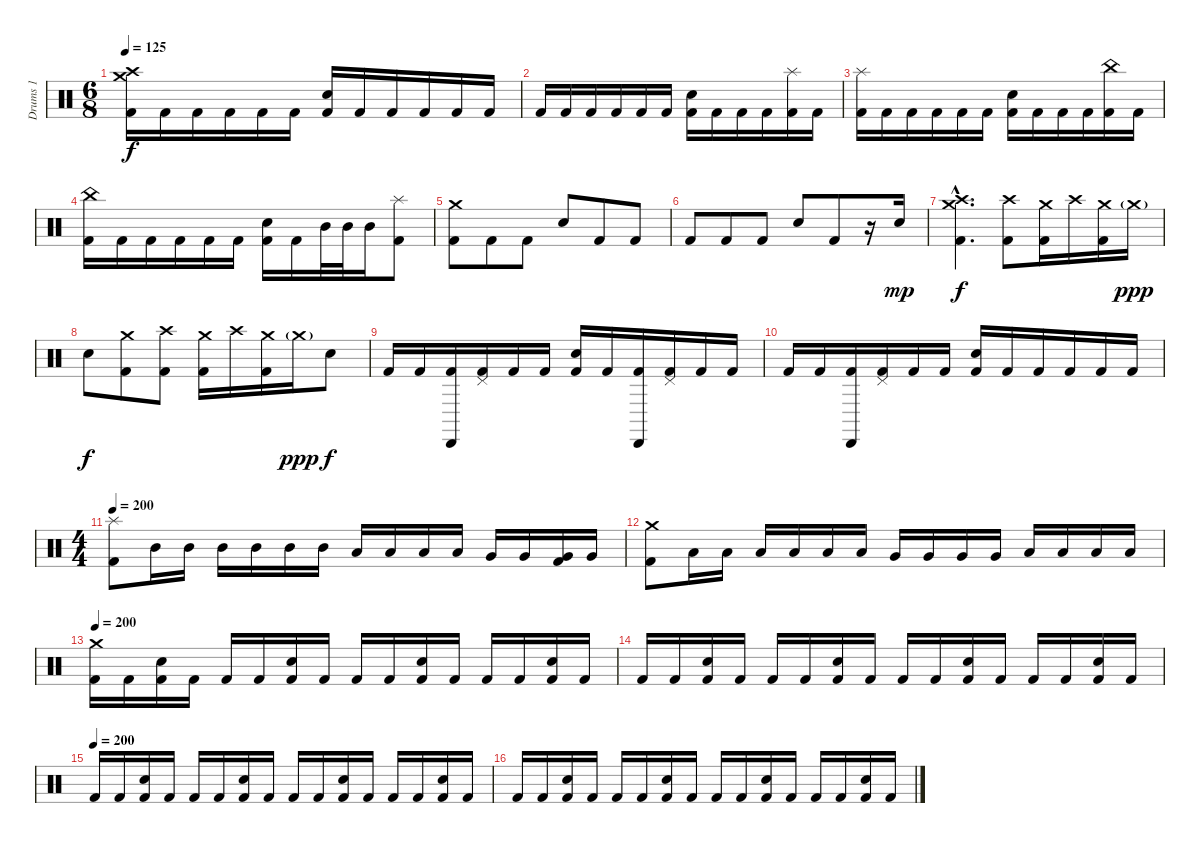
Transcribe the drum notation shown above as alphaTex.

\track ("Drums 1" "Drums 1") {instrument percussion}
\staff {score}
\articulation defaults
\ts (6 8)
\tempo 125
\clef neutral
\ks c
("Crash high (hit)" "Crash medium (hit)" "Kick (hit) 2").16{dy f} "Kick (hit) 2".16 "Kick (hit) 2".16 "Kick (hit) 2".16 "Kick (hit) 2".16 "Kick (hit) 2".16 ("Snare (hit) 2" "Kick (hit) 2").16 "Kick (hit) 2".16 "Kick (hit) 2".16 "Kick (hit) 2".16 "Kick (hit) 2".16 "Kick (hit) 2".16 |
"Kick (hit) 2".16 "Kick (hit) 2".16 "Kick (hit) 2".16 "Kick (hit) 2".16 "Kick (hit) 2".16 "Kick (hit) 2".16 ("Snare (hit) 2" "Kick (hit) 2").16 "Kick (hit) 2".16 "Kick (hit) 2".16 "Kick (hit) 2".16 ("Splash (hit)" "Kick (hit) 2").16 "Kick (hit) 2".16 |
("Splash (hit)" "Kick (hit) 2").16 "Kick (hit) 2".16 "Kick (hit) 2".16 "Kick (hit) 2".16 "Kick (hit) 2".16 "Kick (hit) 2".16 ("Snare (hit) 2" "Kick (hit) 2").16 "Kick (hit) 2".16 "Kick (hit) 2".16 "Kick (hit) 2".16 ("China (hit)" "Kick (hit) 2").16 "Kick (hit) 2".16 |
("China (hit)" "Kick (hit) 2").16 "Kick (hit) 2".16 "Kick (hit) 2".16 "Kick (hit) 2".16 "Kick (hit) 2".16 "Kick (hit) 2".16 ("Snare (hit) 2" "Kick (hit) 2").16 "Kick (hit) 2".16 "Mid Tom (hit)".32 "Mid Tom (hit)".32 "Mid Tom (hit)".16 ("Splash (hit)" "Kick (hit) 2").8 |
("Crash medium (hit)" "Kick (hit) 2").8 "Kick (hit) 2".8 "Kick (hit) 2".8 "Snare (hit) 2".8 "Kick (hit) 2".8 "Kick (hit) 2".8 |
"Kick (hit) 2".8 "Kick (hit) 2".8 "Kick (hit) 2".8 "Snare (hit) 2".8 "Kick (hit) 2".8 r.16 "Snare (hit) 2".16{dy mp} |
("Crash medium (hit)"{hac} "Crash high (hit)"{hac} "Kick (hit) 2"{hac}).4{d dy f} ("Crash high (hit)" "Kick (hit) 2").8 ("Crash medium (hit)" "Kick (hit) 2").16 "Crash high (hit)".16 ("Crash medium (hit)" "Kick (hit) 2").16 "Crash medium (hit)"{g}.16{dy ppp} |
"Snare (hit) 2".8{dy f} ("Crash medium (hit)" "Kick (hit) 2").8 ("Crash high (hit)" "Kick (hit) 2").8 ("Crash medium (hit)" "Kick (hit) 2").16 "Crash high (hit)".16 ("Crash medium (hit)" "Kick (hit) 2").16 "Crash medium (hit)"{g}.16{dy ppp} "Snare (hit) 2".8{dy f} |
"Kick (hit) 2".16 "Kick (hit) 2".16 ("Cabasa (hit)" "Kick (hit) 2").16 ("Pedal Hi-Hat (hit)" "Kick (hit) 2").16 "Kick (hit) 2".16 "Kick (hit) 2".16 ("Snare (hit) 2" "Kick (hit) 2").16 "Kick (hit) 2".16 ("Cabasa (hit)" "Kick (hit) 2").16 ("Pedal Hi-Hat (hit)" "Kick (hit) 2").16 "Kick (hit) 2".16 "Kick (hit) 2".16 |
"Kick (hit) 2".16 "Kick (hit) 2".16 ("Cabasa (hit)" "Kick (hit) 2").16 ("Pedal Hi-Hat (hit)" "Kick (hit) 2").16 "Kick (hit) 2".16 "Kick (hit) 2".16 ("Snare (hit) 2" "Kick (hit) 2").16 "Kick (hit) 2".16 "Kick (hit) 2".16 "Kick (hit) 2".16 "Kick (hit) 2".16 "Kick (hit) 2".16 |
\ts (4 4)
\tempo 200
("Splash (hit)" "Kick (hit) 2").8 "Mid Tom (hit)".16 "Mid Tom (hit)".16 "Mid Tom (hit)".16 "Mid Tom (hit)".16 "Mid Tom (hit)".16 "Mid Tom (hit)".16 "Low Tom (hit)".16 "Low Tom (hit)".16 "Low Tom (hit)".16 "Low Tom (hit)".16 "Very Low Tom (hit)".16 "Very Low Tom (hit)".16 ("Very Low Tom (hit)" "Kick (hit) 2").16 "Very Low Tom (hit)".16 |
("Crash medium (hit)" "Kick (hit) 2").8 "Low Tom (hit)".16 "Low Tom (hit)".16 "Low Tom (hit)".16 "Low Tom (hit)".16 "Low Tom (hit)".16 "Low Tom (hit)".16 "Very Low Tom (hit)".16 "Very Low Tom (hit)".16 "Very Low Tom (hit)".16 "Very Low Tom (hit)".16 "Low Floor Tom (hit)".16 "Low Floor Tom (hit)".16 "Low Floor Tom (hit)".16 "Low Floor Tom (hit)".16 |
\tempo 200
("Crash medium (hit)" "Kick (hit) 2").16 "Kick (hit) 2".16 ("Snare (hit) 2" "Kick (hit) 2").16 "Kick (hit) 2".16 "Kick (hit) 2".16 "Kick (hit) 2".16 ("Snare (hit) 2" "Kick (hit) 2").16 "Kick (hit) 2".16 "Kick (hit) 2".16 "Kick (hit) 2".16 ("Snare (hit) 2" "Kick (hit) 2").16 "Kick (hit) 2".16 "Kick (hit) 2".16 "Kick (hit) 2".16 ("Snare (hit) 2" "Kick (hit) 2").16 "Kick (hit) 2".16 |
"Kick (hit) 2".16 "Kick (hit) 2".16 ("Snare (hit) 2" "Kick (hit) 2").16 "Kick (hit) 2".16 "Kick (hit) 2".16 "Kick (hit) 2".16 ("Snare (hit) 2" "Kick (hit) 2").16 "Kick (hit) 2".16 "Kick (hit) 2".16 "Kick (hit) 2".16 ("Snare (hit) 2" "Kick (hit) 2").16 "Kick (hit) 2".16 "Kick (hit) 2".16 "Kick (hit) 2".16 ("Snare (hit) 2" "Kick (hit) 2").16 "Kick (hit) 2".16 |
\tempo (200)
"Kick (hit) 2".16 "Kick (hit) 2".16 ("Snare (hit) 2" "Kick (hit) 2").16 "Kick (hit) 2".16 "Kick (hit) 2".16 "Kick (hit) 2".16 ("Snare (hit) 2" "Kick (hit) 2").16 "Kick (hit) 2".16 "Kick (hit) 2".16 "Kick (hit) 2".16 ("Snare (hit) 2" "Kick (hit) 2").16 "Kick (hit) 2".16 "Kick (hit) 2".16 "Kick (hit) 2".16 ("Snare (hit) 2" "Kick (hit) 2").16 "Kick (hit) 2".16 |
"Kick (hit) 2".16 "Kick (hit) 2".16 ("Snare (hit) 2" "Kick (hit) 2").16 "Kick (hit) 2".16 "Kick (hit) 2".16 "Kick (hit) 2".16 ("Snare (hit) 2" "Kick (hit) 2").16 "Kick (hit) 2".16 "Kick (hit) 2".16 "Kick (hit) 2".16 ("Snare (hit) 2" "Kick (hit) 2").16 "Kick (hit) 2".16 "Kick (hit) 2".16 "Kick (hit) 2".16 ("Snare (hit) 2" "Kick (hit) 2").16 "Kick (hit) 2".16
